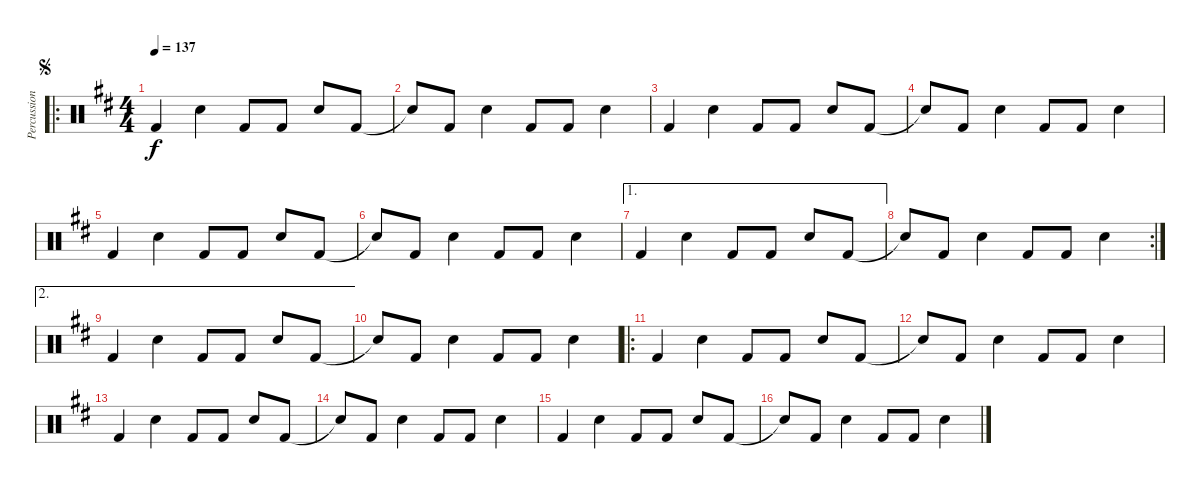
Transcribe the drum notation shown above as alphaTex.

\track ("Percussion" "Percussion") {instrument percussion}
\staff {score}
\articulation defaults
\ro
\ts (4 4)
\jump segno
\tempo 137
\clef neutral
\ks d "Kick (hit) 2".4{dy f} "Electric Snare (hit)".4 "Kick (hit) 2".8 "Kick (hit) 2".8 "Electric Snare (hit)".8 "Kick (hit) 2".8
|
"Snare (hit)"{t}.8 "Kick (hit) 2".8 "Electric Snare (hit)".4 "Kick (hit) 2".8 "Kick (hit) 2".8 "Electric Snare (hit)".4 |
"Kick (hit) 2".4 "Electric Snare (hit)".4 "Kick (hit) 2".8 "Kick (hit) 2".8 "Electric Snare (hit)".8 "Kick (hit) 2".8 |
"Snare (hit)"{t}.8 "Kick (hit) 2".8 "Electric Snare (hit)".4 "Kick (hit) 2".8 "Kick (hit) 2".8 "Electric Snare (hit)".4 |
"Kick (hit) 2".4 "Electric Snare (hit)".4 "Kick (hit) 2".8 "Kick (hit) 2".8 "Electric Snare (hit)".8 "Kick (hit) 2".8 |
"Snare (hit)"{t}.8 "Kick (hit) 2".8 "Electric Snare (hit)".4 "Kick (hit) 2".8 "Kick (hit) 2".8 "Electric Snare (hit)".4 |
\ae 1 "Kick (hit) 2".4 "Electric Snare (hit)".4 "Kick (hit) 2".8 "Kick (hit) 2".8 "Electric Snare (hit)".8 "Kick (hit) 2".8
|
\rc 2 "Snare (hit)"{t}.8 "Kick (hit) 2".8 "Electric Snare (hit)".4 "Kick (hit) 2".8 "Kick (hit) 2".8 "Electric Snare (hit)".4
|
\ae 2 "Kick (hit) 2".4 "Electric Snare (hit)".4 "Kick (hit) 2".8 "Kick (hit) 2".8 "Electric Snare (hit)".8 "Kick (hit) 2".8
|
"Snare (hit)"{t}.8 "Kick (hit) 2".8 "Electric Snare (hit)".4 "Kick (hit) 2".8 "Kick (hit) 2".8 "Electric Snare (hit)".4 |
\ro "Kick (hit) 2".4 "Electric Snare (hit)".4 "Kick (hit) 2".8 "Kick (hit) 2".8 "Electric Snare (hit)".8 "Kick (hit) 2".8
|
"Snare (hit)"{t}.8 "Kick (hit) 2".8 "Electric Snare (hit)".4 "Kick (hit) 2".8 "Kick (hit) 2".8 "Electric Snare (hit)".4 |
"Kick (hit) 2".4 "Electric Snare (hit)".4 "Kick (hit) 2".8 "Kick (hit) 2".8 "Electric Snare (hit)".8 "Kick (hit) 2".8 |
"Snare (hit)"{t}.8 "Kick (hit) 2".8 "Electric Snare (hit)".4 "Kick (hit) 2".8 "Kick (hit) 2".8 "Electric Snare (hit)".4 |
"Kick (hit) 2".4 "Electric Snare (hit)".4 "Kick (hit) 2".8 "Kick (hit) 2".8 "Electric Snare (hit)".8 "Kick (hit) 2".8 |
"Snare (hit)"{t}.8 "Kick (hit) 2".8 "Electric Snare (hit)".4 "Kick (hit) 2".8 "Kick (hit) 2".8 "Electric Snare (hit)".4
